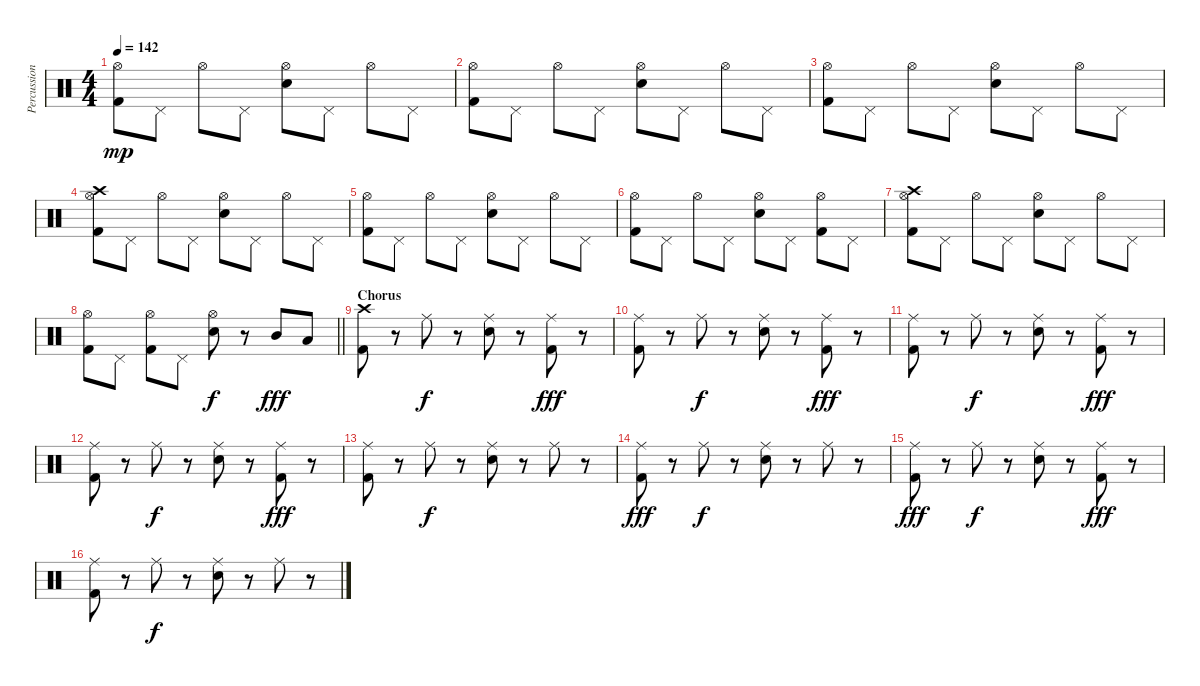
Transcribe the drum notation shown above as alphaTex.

\track ("Percussion" "Percussion") {instrument percussion}
\staff {score}
\articulation defaults
\ts (4 4)
\tempo 142
\clef neutral
\ks c
("Kick (hit) 2" "Hi-Hat (open)").8{dy mp} "Pedal Hi-Hat (hit)".8 "Hi-Hat (open)".8 "Pedal Hi-Hat (hit)".8 ("Electric Snare (hit)" "Hi-Hat (open)").8 "Pedal Hi-Hat (hit)".8 "Hi-Hat (open)".8 "Pedal Hi-Hat (hit)".8 |
("Kick (hit) 2" "Hi-Hat (open)").8 "Pedal Hi-Hat (hit)".8 "Hi-Hat (open)".8 "Pedal Hi-Hat (hit)".8 ("Electric Snare (hit)" "Hi-Hat (open)").8 "Pedal Hi-Hat (hit)".8 "Hi-Hat (open)".8 "Pedal Hi-Hat (hit)".8 |
("Kick (hit) 2" "Hi-Hat (open)").8 "Pedal Hi-Hat (hit)".8 "Hi-Hat (open)".8 "Pedal Hi-Hat (hit)".8 ("Electric Snare (hit)" "Hi-Hat (open)").8 "Pedal Hi-Hat (hit)".8 "Hi-Hat (open)".8 "Pedal Hi-Hat (hit)".8 |
("Kick (hit) 2" "Hi-Hat (open)" "Crash high (hit)").8 "Pedal Hi-Hat (hit)".8 "Hi-Hat (open)".8 "Pedal Hi-Hat (hit)".8 ("Electric Snare (hit)" "Hi-Hat (open)").8 "Pedal Hi-Hat (hit)".8 "Hi-Hat (open)".8 "Pedal Hi-Hat (hit)".8 |
("Kick (hit) 2" "Hi-Hat (open)").8 "Pedal Hi-Hat (hit)".8 "Hi-Hat (open)".8 "Pedal Hi-Hat (hit)".8 ("Electric Snare (hit)" "Hi-Hat (open)").8 "Pedal Hi-Hat (hit)".8 "Hi-Hat (open)".8 "Pedal Hi-Hat (hit)".8 |
("Kick (hit) 2" "Hi-Hat (open)").8 "Pedal Hi-Hat (hit)".8 "Hi-Hat (open)".8 "Pedal Hi-Hat (hit)".8 ("Electric Snare (hit)" "Hi-Hat (open)").8 "Pedal Hi-Hat (hit)".8 ("Kick (hit) 2" "Hi-Hat (open)").8 "Pedal Hi-Hat (hit)".8 |
("Kick (hit) 2" "Hi-Hat (open)" "Crash high (hit)").8 "Pedal Hi-Hat (hit)".8 "Hi-Hat (open)".8 "Pedal Hi-Hat (hit)".8 ("Electric Snare (hit)" "Hi-Hat (open)").8 "Pedal Hi-Hat (hit)".8 "Hi-Hat (open)".8 "Pedal Hi-Hat (hit)".8 |
\barLineRight lightlight
("Kick (hit) 2" "Hi-Hat (open)").8 "Pedal Hi-Hat (hit)".8 ("Kick (hit) 2" "Hi-Hat (open)").8 "Pedal Hi-Hat (hit)".8 ("Electric Snare (hit)" "Hi-Hat (open)").8{dy f} r.8 "Mid Tom (hit)".8{dy fff} "Low Tom (hit)".8 |
\section ("" "Chorus")
("Kick (hit) 2" "Crash high (hit)").8 r.8 "Ride (middle)".8{dy f} r.8 ("Electric Snare (hit)" "Ride (middle)").8 r.8 ("Kick (hit) 2" "Ride (middle)").8{dy fff} r.8 |
("Kick (hit) 2" "Ride (middle)").8 r.8 "Ride (middle)".8{dy f} r.8 ("Electric Snare (hit)" "Ride (middle)").8 r.8 ("Kick (hit) 2" "Ride (middle)").8{dy fff} r.8 |
("Kick (hit) 2" "Ride (middle)").8 r.8 "Ride (middle)".8{dy f} r.8 ("Electric Snare (hit)" "Ride (middle)").8 r.8 ("Kick (hit) 2" "Ride (middle)").8{dy fff} r.8 |
("Kick (hit) 2" "Ride (middle)").8 r.8 "Ride (middle)".8{dy f} r.8 ("Electric Snare (hit)" "Ride (middle)").8 r.8 ("Kick (hit) 2" "Ride (middle)").8{dy fff} r.8 |
("Kick (hit) 2" "Ride (middle)").8 r.8 "Ride (middle)".8{dy f} r.8 ("Electric Snare (hit)" "Ride (middle)").8 r.8 "Ride (middle)".8 r.8 |
("Kick (hit) 2" "Ride (middle)").8{dy fff} r.8 "Ride (middle)".8{dy f} r.8 ("Electric Snare (hit)" "Ride (middle)").8 r.8 "Ride (middle)".8 r.8 |
("Kick (hit) 2" "Ride (middle)").8{dy fff} r.8 "Ride (middle)".8{dy f} r.8 ("Electric Snare (hit)" "Ride (middle)").8 r.8 ("Kick (hit) 2" "Ride (middle)").8{dy fff} r.8 |
("Kick (hit) 2" "Ride (middle)").8 r.8 "Ride (middle)".8{dy f} r.8 ("Electric Snare (hit)" "Ride (middle)").8 r.8 "Ride (middle)".8 r.8
